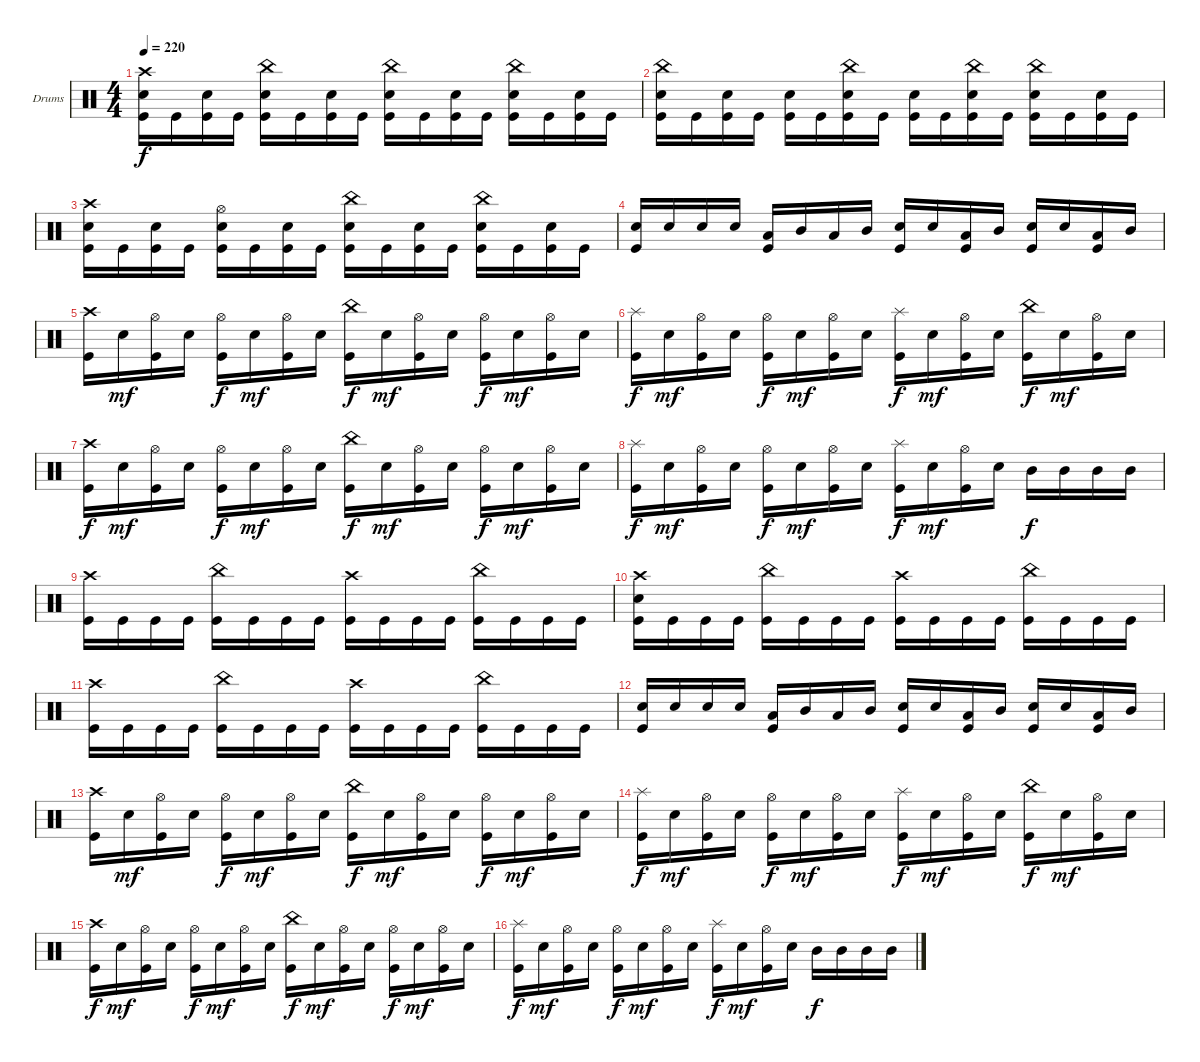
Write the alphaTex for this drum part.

\defaultSystemsLayout 4
\bracketExtendMode groupsimilarinstruments
\firstSystemTrackNameOrientation horizontal
\otherSystemsTrackNameOrientation horizontal
\track ("Drumkit" "Drums") {instrument percussion}
\staff {score}
\articulation defaults
\ts (4 4)
\tempo 220
\clef neutral
\scale
0.333333
\ks c
("Crash high (hit)" "Snare (hit) 2" "Kick (hit)").16{dy f} "Kick (hit)".16 ("Snare (hit) 2" "Kick (hit)").16 "Kick (hit)".16 ("China (hit)" "Snare (hit) 2" "Kick (hit)").16 "Kick (hit)".16 ("Snare (hit) 2" "Kick (hit)").16 "Kick (hit)".16 ("China (hit)" "Snare (hit) 2" "Kick (hit)").16 "Kick (hit)".16 ("Snare (hit) 2" "Kick (hit)").16 "Kick (hit)".16 ("China (hit)" "Snare (hit) 2" "Kick (hit)").16 "Kick (hit)".16 ("Snare (hit) 2" "Kick (hit)").16 "Kick (hit)".16 |
\scale
0.333333 ("China (hit)" "Snare (hit) 2" "Kick (hit)").16 "Kick (hit)".16 ("Snare (hit) 2" "Kick (hit)").16 "Kick (hit)".16 ("Snare (hit) 2" "Kick (hit)").16 "Kick (hit)".16 ("China (hit)" "Snare (hit) 2" "Kick (hit)").16 "Kick (hit)".16 ("Snare (hit) 2" "Kick (hit)").16 "Kick (hit)".16 ("China (hit)" "Snare (hit) 2" "Kick (hit)").16 "Kick (hit)".16 ("China (hit)" "Snare (hit) 2" "Kick (hit)").16 "Kick (hit)".16 ("Snare (hit) 2" "Kick (hit)").16 "Kick (hit)".16 |
\scale
0.333333 ("Crash high (hit)" "Snare (hit) 2" "Kick (hit)").16 "Kick (hit)".16 ("Snare (hit) 2" "Kick (hit)").16 "Kick (hit)".16 ("Hi-Hat (open)" "Snare (hit) 2" "Kick (hit)").16 "Kick (hit)".16 ("Snare (hit) 2" "Kick (hit)").16 "Kick (hit)".16 ("China (hit)" "Snare (hit) 2" "Kick (hit)").16 "Kick (hit)".16 ("Snare (hit) 2" "Kick (hit)").16 "Kick (hit)".16 ("China (hit)" "Snare (hit) 2" "Kick (hit)").16 "Kick (hit)".16 ("Snare (hit) 2" "Kick (hit)").16 "Kick (hit)".16 |
\scale
0.333333 ("Snare (hit) 2" "Kick (hit)").16 "Snare (hit) 2".16 "Snare (hit) 2".16 "Snare (hit) 2".16 ("Low Tom (hit)" "Kick (hit)").16 "Mid Tom (hit)".16 "Low Tom (hit)".16 "Mid Tom (hit)".16 ("Snare (hit) 2" "Kick (hit)").16 "Snare (hit) 2".16 ("Low Tom (hit)" "Kick (hit)").16 "Mid Tom (hit)".16 ("Snare (hit) 2" "Kick (hit)").16 "Snare (hit) 2".16 ("Low Tom (hit)" "Kick (hit)").16 "Mid Tom (hit)".16 |
\scale
0.333333 ("Crash high (hit)" "Kick (hit)").16 "Snare (hit) 2".16{dy mf} ("Hi-Hat (open)" "Kick (hit)").16 "Snare (hit) 2".16 ("Hi-Hat (open)" "Kick (hit)").16{dy f} "Snare (hit) 2".16{dy mf} ("Hi-Hat (open)" "Kick (hit)").16 "Snare (hit) 2".16 ("China (hit)" "Kick (hit)").16{dy f} "Snare (hit) 2".16{dy mf} ("Hi-Hat (open)" "Kick (hit)").16 "Snare (hit) 2".16 ("Hi-Hat (open)" "Kick (hit)").16{dy f} "Snare (hit) 2".16{dy mf} ("Hi-Hat (open)" "Kick (hit)").16 "Snare (hit) 2".16 |
\scale
0.333333 ("Splash (hit)" "Kick (hit)").16{dy f} "Snare (hit) 2".16{dy mf} ("Hi-Hat (open)" "Kick (hit)").16 "Snare (hit) 2".16 ("Hi-Hat (open)" "Kick (hit)").16{dy f} "Snare (hit) 2".16{dy mf} ("Hi-Hat (open)" "Kick (hit)").16 "Snare (hit) 2".16 ("Splash (hit)" "Kick (hit)").16{dy f} "Snare (hit) 2".16{dy mf} ("Hi-Hat (open)" "Kick (hit)").16 "Snare (hit) 2".16 ("China (hit)" "Kick (hit)").16{dy f} "Snare (hit) 2".16{dy mf} ("Hi-Hat (open)" "Kick (hit)").16 "Snare (hit) 2".16 |
\scale
0.333333 ("Crash high (hit)" "Kick (hit)").16{dy f} "Snare (hit) 2".16{dy mf} ("Hi-Hat (open)" "Kick (hit)").16 "Snare (hit) 2".16 ("Hi-Hat (open)" "Kick (hit)").16{dy f} "Snare (hit) 2".16{dy mf} ("Hi-Hat (open)" "Kick (hit)").16 "Snare (hit) 2".16 ("China (hit)" "Kick (hit)").16{dy f} "Snare (hit) 2".16{dy mf} ("Hi-Hat (open)" "Kick (hit)").16 "Snare (hit) 2".16 ("Hi-Hat (open)" "Kick (hit)").16{dy f} "Snare (hit) 2".16{dy mf} ("Hi-Hat (open)" "Kick (hit)").16 "Snare (hit) 2".16 |
\scale
0.333333 ("Splash (hit)" "Kick (hit)").16{dy f} "Snare (hit) 2".16{dy mf} ("Hi-Hat (open)" "Kick (hit)").16 "Snare (hit) 2".16 ("Hi-Hat (open)" "Kick (hit)").16{dy f} "Snare (hit) 2".16{dy mf} ("Hi-Hat (open)" "Kick (hit)").16 "Snare (hit) 2".16 ("Splash (hit)" "Kick (hit)").16{dy f} "Snare (hit) 2".16{dy mf} ("Hi-Hat (open)" "Kick (hit)").16 "Snare (hit) 2".16 "Mid Tom (hit)".16{dy f} "Mid Tom (hit)".16 "Mid Tom (hit)".16 "Mid Tom (hit)".16 |
\scale
0.333333 ("Crash high (hit)" "Kick (hit)").16 "Kick (hit)".16 "Kick (hit)".16 "Kick (hit)".16 ("China (hit)" "Kick (hit)").16 "Kick (hit)".16 "Kick (hit)".16 "Kick (hit)".16 ("Crash high (hit)" "Kick (hit)").16 "Kick (hit)".16 "Kick (hit)".16 "Kick (hit)".16 ("China (hit)" "Kick (hit)").16 "Kick (hit)".16 "Kick (hit)".16 "Kick (hit)".16 |
\scale
0.333333 ("Crash high (hit)" "Snare (hit) 2" "Kick (hit)").16 "Kick (hit)".16 "Kick (hit)".16 "Kick (hit)".16 ("China (hit)" "Kick (hit)").16 "Kick (hit)".16 "Kick (hit)".16 "Kick (hit)".16 ("Crash high (hit)" "Kick (hit)").16 "Kick (hit)".16 "Kick (hit)".16 "Kick (hit)".16 ("China (hit)" "Kick (hit)").16 "Kick (hit)".16 "Kick (hit)".16 "Kick (hit)".16 |
\scale
0.333333 ("Crash high (hit)" "Kick (hit)").16 "Kick (hit)".16 "Kick (hit)".16 "Kick (hit)".16 ("China (hit)" "Kick (hit)").16 "Kick (hit)".16 "Kick (hit)".16 "Kick (hit)".16 ("Crash high (hit)" "Kick (hit)").16 "Kick (hit)".16 "Kick (hit)".16 "Kick (hit)".16 ("China (hit)" "Kick (hit)").16 "Kick (hit)".16 "Kick (hit)".16 "Kick (hit)".16 |
\scale
0.333333 ("Snare (hit) 2" "Kick (hit)").16 "Snare (hit) 2".16 "Snare (hit) 2".16 "Snare (hit) 2".16 ("Low Tom (hit)" "Kick (hit)").16 "Mid Tom (hit)".16 "Low Tom (hit)".16 "Mid Tom (hit)".16 ("Snare (hit) 2" "Kick (hit)").16 "Snare (hit) 2".16 ("Low Tom (hit)" "Kick (hit)").16 "Mid Tom (hit)".16 ("Snare (hit) 2" "Kick (hit)").16 "Snare (hit) 2".16 ("Low Tom (hit)" "Kick (hit)").16 "Mid Tom (hit)".16 |
\scale
0.333333 ("Crash high (hit)" "Kick (hit)").16 "Snare (hit) 2".16{dy mf} ("Hi-Hat (open)" "Kick (hit)").16 "Snare (hit) 2".16 ("Hi-Hat (open)" "Kick (hit)").16{dy f} "Snare (hit) 2".16{dy mf} ("Hi-Hat (open)" "Kick (hit)").16 "Snare (hit) 2".16 ("China (hit)" "Kick (hit)").16{dy f} "Snare (hit) 2".16{dy mf} ("Hi-Hat (open)" "Kick (hit)").16 "Snare (hit) 2".16 ("Hi-Hat (open)" "Kick (hit)").16{dy f} "Snare (hit) 2".16{dy mf} ("Hi-Hat (open)" "Kick (hit)").16 "Snare (hit) 2".16 |
\scale
0.333333 ("Splash (hit)" "Kick (hit)").16{dy f} "Snare (hit) 2".16{dy mf} ("Hi-Hat (open)" "Kick (hit)").16 "Snare (hit) 2".16 ("Hi-Hat (open)" "Kick (hit)").16{dy f} "Snare (hit) 2".16{dy mf} ("Hi-Hat (open)" "Kick (hit)").16 "Snare (hit) 2".16 ("Splash (hit)" "Kick (hit)").16{dy f} "Snare (hit) 2".16{dy mf} ("Hi-Hat (open)" "Kick (hit)").16 "Snare (hit) 2".16 ("China (hit)" "Kick (hit)").16{dy f} "Snare (hit) 2".16{dy mf} ("Hi-Hat (open)" "Kick (hit)").16 "Snare (hit) 2".16 |
\scale
0.333333 ("Crash high (hit)" "Kick (hit)").16{dy f} "Snare (hit) 2".16{dy mf} ("Hi-Hat (open)" "Kick (hit)").16 "Snare (hit) 2".16 ("Hi-Hat (open)" "Kick (hit)").16{dy f} "Snare (hit) 2".16{dy mf} ("Hi-Hat (open)" "Kick (hit)").16 "Snare (hit) 2".16 ("China (hit)" "Kick (hit)").16{dy f} "Snare (hit) 2".16{dy mf} ("Hi-Hat (open)" "Kick (hit)").16 "Snare (hit) 2".16 ("Hi-Hat (open)" "Kick (hit)").16{dy f} "Snare (hit) 2".16{dy mf} ("Hi-Hat (open)" "Kick (hit)").16 "Snare (hit) 2".16 |
\scale
0.333333 ("Splash (hit)" "Kick (hit)").16{dy f} "Snare (hit) 2".16{dy mf} ("Hi-Hat (open)" "Kick (hit)").16 "Snare (hit) 2".16 ("Hi-Hat (open)" "Kick (hit)").16{dy f} "Snare (hit) 2".16{dy mf} ("Hi-Hat (open)" "Kick (hit)").16 "Snare (hit) 2".16 ("Splash (hit)" "Kick (hit)").16{dy f} "Snare (hit) 2".16{dy mf} ("Hi-Hat (open)" "Kick (hit)").16 "Snare (hit) 2".16 "Mid Tom (hit)".16{dy f} "Mid Tom (hit)".16 "Mid Tom (hit)".16 "Mid Tom (hit)".16
